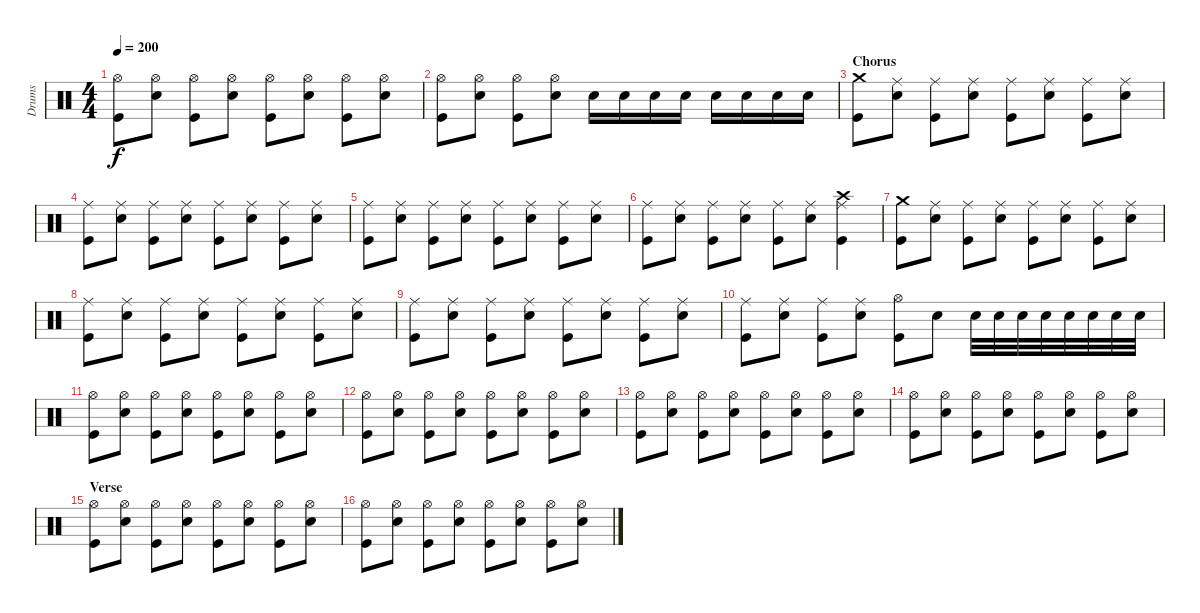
\track ("Drums" "Drums") {instrument percussion}
\staff {score}
\articulation defaults
\ts (4 4)
\tempo 200
\clef neutral
\ks c
("Hi-Hat (open)" "Kick (hit)").8{dy f} ("Hi-Hat (open)" "Snare (hit) 2").8 ("Hi-Hat (open)" "Kick (hit)").8 ("Hi-Hat (open)" "Snare (hit) 2").8 ("Hi-Hat (open)" "Kick (hit)").8 ("Hi-Hat (open)" "Snare (hit) 2").8 ("Hi-Hat (open)" "Kick (hit)").8 ("Hi-Hat (open)" "Snare (hit) 2").8 |
("Hi-Hat (open)" "Kick (hit)").8 ("Hi-Hat (open)" "Snare (hit) 2").8 ("Hi-Hat (open)" "Kick (hit)").8 ("Hi-Hat (open)" "Snare (hit) 2").8 "Snare (hit) 2".16 "Snare (hit) 2".16 "Snare (hit) 2".16 "Snare (hit) 2".16 "Snare (hit) 2".16 "Snare (hit) 2".16 "Snare (hit) 2".16 "Snare (hit) 2".16 |
\section ("" "Chorus")
("Crash medium (hit)" "Kick (hit)").8 ("Ride (middle)" "Snare (hit) 2").8 ("Ride (middle)" "Kick (hit)").8 ("Ride (middle)" "Snare (hit) 2").8 ("Ride (middle)" "Kick (hit)").8 ("Ride (middle)" "Snare (hit) 2").8 ("Ride (middle)" "Kick (hit)").8 ("Ride (middle)" "Snare (hit) 2").8 |
("Ride (middle)" "Kick (hit)").8 ("Ride (middle)" "Snare (hit) 2").8 ("Ride (middle)" "Kick (hit)").8 ("Ride (middle)" "Snare (hit) 2").8 ("Ride (middle)" "Kick (hit)").8 ("Ride (middle)" "Snare (hit) 2").8 ("Ride (middle)" "Kick (hit)").8 ("Ride (middle)" "Snare (hit) 2").8 |
("Ride (middle)" "Kick (hit)").8 ("Ride (middle)" "Snare (hit) 2").8 ("Ride (middle)" "Kick (hit)").8 ("Ride (middle)" "Snare (hit) 2").8 ("Ride (middle)" "Kick (hit)").8 ("Ride (middle)" "Snare (hit) 2").8 ("Ride (middle)" "Kick (hit)").8 ("Ride (middle)" "Snare (hit) 2").8 |
("Ride (middle)" "Kick (hit)").8 ("Ride (middle)" "Snare (hit) 2").8 ("Ride (middle)" "Kick (hit)").8 ("Ride (middle)" "Snare (hit) 2").8 ("Ride (middle)" "Kick (hit)").8 ("Ride (middle)" "Snare (hit) 2").8 ("Crash high (hit)" "Ride (middle)" "Kick (hit)").4 |
("Crash medium (hit)" "Kick (hit)").8 ("Ride (middle)" "Snare (hit) 2").8 ("Ride (middle)" "Kick (hit)").8 ("Ride (middle)" "Snare (hit) 2").8 ("Ride (middle)" "Kick (hit)").8 ("Ride (middle)" "Snare (hit) 2").8 ("Ride (middle)" "Kick (hit)").8 ("Ride (middle)" "Snare (hit) 2").8 |
("Ride (middle)" "Kick (hit)").8 ("Ride (middle)" "Snare (hit) 2").8 ("Ride (middle)" "Kick (hit)").8 ("Ride (middle)" "Snare (hit) 2").8 ("Ride (middle)" "Kick (hit)").8 ("Ride (middle)" "Snare (hit) 2").8 ("Ride (middle)" "Kick (hit)").8 ("Ride (middle)" "Snare (hit) 2").8 |
("Ride (middle)" "Kick (hit)").8 ("Ride (middle)" "Snare (hit) 2").8 ("Ride (middle)" "Kick (hit)").8 ("Ride (middle)" "Snare (hit) 2").8 ("Ride (middle)" "Kick (hit)").8 ("Ride (middle)" "Snare (hit) 2").8 ("Ride (middle)" "Kick (hit)").8 ("Ride (middle)" "Snare (hit) 2").8 |
("Ride (middle)" "Kick (hit)").8 ("Ride (middle)" "Snare (hit) 2").8 ("Ride (middle)" "Kick (hit)").8 ("Ride (middle)" "Snare (hit) 2").8 ("Hi-Hat (open)" "Kick (hit)").8 "Snare (hit) 2".8 "Snare (hit) 2".32 "Snare (hit) 2".32 "Snare (hit) 2".32 "Snare (hit) 2".32 "Snare (hit) 2".32 "Snare (hit) 2".32 "Snare (hit) 2".32 "Snare (hit) 2".32 |
("Hi-Hat (open)" "Kick (hit)").8 ("Hi-Hat (open)" "Snare (hit) 2").8 ("Hi-Hat (open)" "Kick (hit)").8 ("Hi-Hat (open)" "Snare (hit) 2").8 ("Hi-Hat (open)" "Kick (hit)").8 ("Hi-Hat (open)" "Snare (hit) 2").8 ("Hi-Hat (open)" "Kick (hit)").8 ("Hi-Hat (open)" "Snare (hit) 2").8 |
("Hi-Hat (open)" "Kick (hit)").8 ("Hi-Hat (open)" "Snare (hit) 2").8 ("Hi-Hat (open)" "Kick (hit)").8 ("Hi-Hat (open)" "Snare (hit) 2").8 ("Hi-Hat (open)" "Kick (hit)").8 ("Hi-Hat (open)" "Snare (hit) 2").8 ("Hi-Hat (open)" "Kick (hit)").8 ("Hi-Hat (open)" "Snare (hit) 2").8 |
("Hi-Hat (open)" "Kick (hit)").8 ("Hi-Hat (open)" "Snare (hit) 2").8 ("Hi-Hat (open)" "Kick (hit)").8 ("Hi-Hat (open)" "Snare (hit) 2").8 ("Hi-Hat (open)" "Kick (hit)").8 ("Hi-Hat (open)" "Snare (hit) 2").8 ("Hi-Hat (open)" "Kick (hit)").8 ("Hi-Hat (open)" "Snare (hit) 2").8 |
("Hi-Hat (open)" "Kick (hit)").8 ("Hi-Hat (open)" "Snare (hit) 2").8 ("Hi-Hat (open)" "Kick (hit)").8 ("Hi-Hat (open)" "Snare (hit) 2").8 ("Hi-Hat (open)" "Kick (hit)").8 ("Hi-Hat (open)" "Snare (hit) 2").8 ("Hi-Hat (open)" "Kick (hit)").8 ("Hi-Hat (open)" "Snare (hit) 2").8 |
\section ("" "Verse")
("Hi-Hat (open)" "Kick (hit)").8 ("Hi-Hat (open)" "Snare (hit) 2").8 ("Hi-Hat (open)" "Kick (hit)").8 ("Hi-Hat (open)" "Snare (hit) 2").8 ("Hi-Hat (open)" "Kick (hit)").8 ("Hi-Hat (open)" "Snare (hit) 2").8 ("Hi-Hat (open)" "Kick (hit)").8 ("Hi-Hat (open)" "Snare (hit) 2").8 |
("Hi-Hat (open)" "Kick (hit)").8 ("Hi-Hat (open)" "Snare (hit) 2").8 ("Hi-Hat (open)" "Kick (hit)").8 ("Hi-Hat (open)" "Snare (hit) 2").8 ("Hi-Hat (open)" "Kick (hit)").8 ("Hi-Hat (open)" "Snare (hit) 2").8 ("Hi-Hat (open)" "Kick (hit)").8 ("Hi-Hat (open)" "Snare (hit) 2").8
